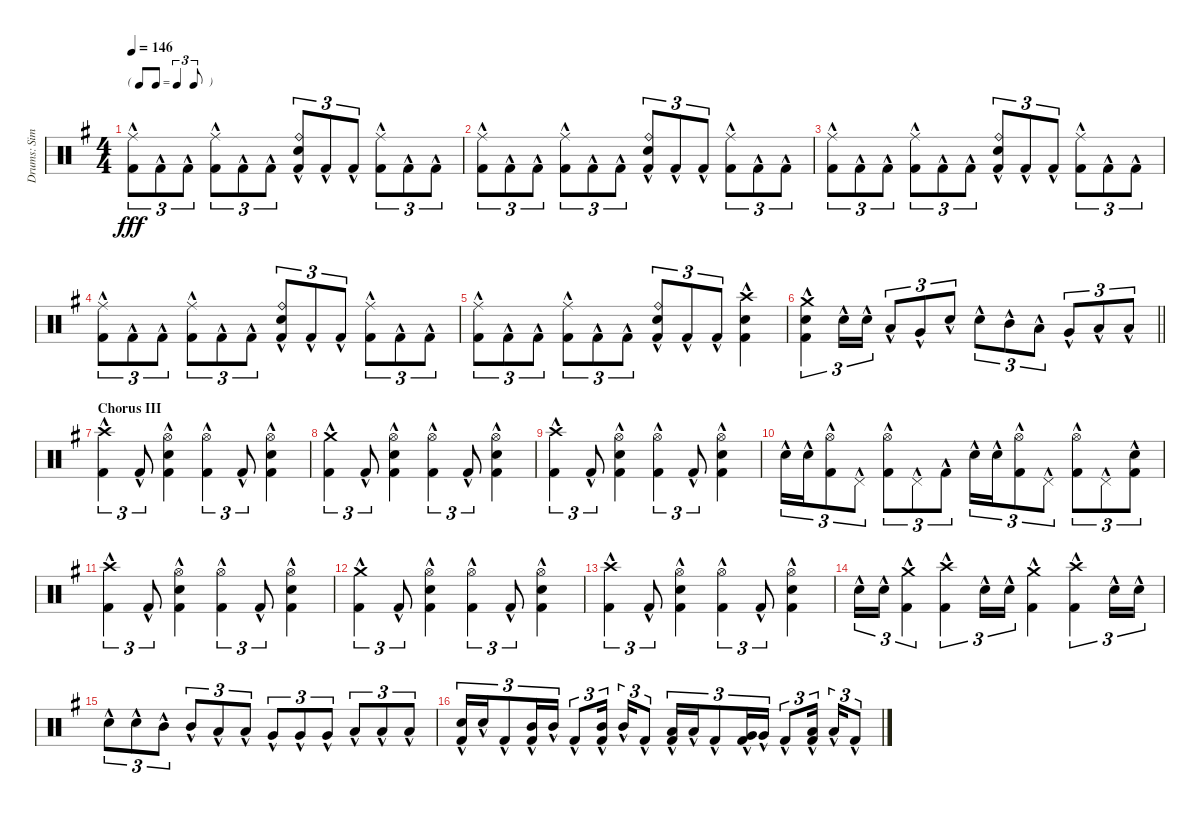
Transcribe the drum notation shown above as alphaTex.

\track ("Drums: Simon" "Drums: Sim") {instrument percussion}
\staff {score}
\articulation defaults
\ts (4 4)
\tf triplet8th
\tempo 146
\clef neutral
\ks g
("Ride (middle)"{hac} "Kick (hit) 2"{hac}).8{tu (3 2) dy fff} "Kick (hit) 2"{hac}.8{tu (3 2)} "Kick (hit) 2"{hac}.8{tu (3 2)} ("Ride (middle)"{hac} "Kick (hit) 2"{hac}).8{tu (3 2)} "Kick (hit) 2"{hac}.8{tu (3 2)} "Kick (hit) 2"{hac}.8{tu (3 2)} ("Ride (bell)"{hac} "Snare (hit) 2"{hac} "Kick (hit) 2"{hac}).8{tu (3 2)} "Kick (hit) 2"{hac}.8{tu (3 2)} "Kick (hit) 2"{hac}.8{tu (3 2)} ("Ride (middle)"{hac} "Kick (hit) 2"{hac}).8{tu (3 2)} "Kick (hit) 2"{hac}.8{tu (3 2)} "Kick (hit) 2"{hac}.8{tu (3 2)} |
("Ride (middle)"{hac} "Kick (hit) 2"{hac}).8{tu (3 2)} "Kick (hit) 2"{hac}.8{tu (3 2)} "Kick (hit) 2"{hac}.8{tu (3 2)} ("Ride (middle)"{hac} "Kick (hit) 2"{hac}).8{tu (3 2)} "Kick (hit) 2"{hac}.8{tu (3 2)} "Kick (hit) 2"{hac}.8{tu (3 2)} ("Ride (bell)"{hac} "Snare (hit) 2"{hac} "Kick (hit) 2"{hac}).8{tu (3 2)} "Kick (hit) 2"{hac}.8{tu (3 2)} "Kick (hit) 2"{hac}.8{tu (3 2)} ("Ride (middle)"{hac} "Kick (hit) 2"{hac}).8{tu (3 2)} "Kick (hit) 2"{hac}.8{tu (3 2)} "Kick (hit) 2"{hac}.8{tu (3 2)} |
("Ride (middle)"{hac} "Kick (hit) 2"{hac}).8{tu (3 2)} "Kick (hit) 2"{hac}.8{tu (3 2)} "Kick (hit) 2"{hac}.8{tu (3 2)} ("Ride (middle)"{hac} "Kick (hit) 2"{hac}).8{tu (3 2)} "Kick (hit) 2"{hac}.8{tu (3 2)} "Kick (hit) 2"{hac}.8{tu (3 2)} ("Ride (bell)"{hac} "Snare (hit) 2"{hac} "Kick (hit) 2"{hac}).8{tu (3 2)} "Kick (hit) 2"{hac}.8{tu (3 2)} "Kick (hit) 2"{hac}.8{tu (3 2)} ("Ride (middle)"{hac} "Kick (hit) 2"{hac}).8{tu (3 2)} "Kick (hit) 2"{hac}.8{tu (3 2)} "Kick (hit) 2"{hac}.8{tu (3 2)} |
("Ride (middle)"{hac} "Kick (hit) 2"{hac}).8{tu (3 2)} "Kick (hit) 2"{hac}.8{tu (3 2)} "Kick (hit) 2"{hac}.8{tu (3 2)} ("Ride (middle)"{hac} "Kick (hit) 2"{hac}).8{tu (3 2)} "Kick (hit) 2"{hac}.8{tu (3 2)} "Kick (hit) 2"{hac}.8{tu (3 2)} ("Ride (bell)"{hac} "Snare (hit) 2"{hac} "Kick (hit) 2"{hac}).8{tu (3 2)} "Kick (hit) 2"{hac}.8{tu (3 2)} "Kick (hit) 2"{hac}.8{tu (3 2)} ("Ride (middle)"{hac} "Kick (hit) 2"{hac}).8{tu (3 2)} "Kick (hit) 2"{hac}.8{tu (3 2)} "Kick (hit) 2"{hac}.8{tu (3 2)} |
("Ride (middle)"{hac} "Kick (hit) 2"{hac}).8{tu (3 2)} "Kick (hit) 2"{hac}.8{tu (3 2)} "Kick (hit) 2"{hac}.8{tu (3 2)} ("Ride (middle)"{hac} "Kick (hit) 2"{hac}).8{tu (3 2)} "Kick (hit) 2"{hac}.8{tu (3 2)} "Kick (hit) 2"{hac}.8{tu (3 2)} ("Ride (bell)"{hac} "Snare (hit) 2"{hac} "Kick (hit) 2"{hac}).8{tu (3 2)} "Kick (hit) 2"{hac}.8{tu (3 2)} "Kick (hit) 2"{hac}.8{tu (3 2)} ("Crash high (hit)"{hac} "Snare (hit) 2"{hac} "Kick (hit) 2"{hac}).4 |
\barLineRight lightlight
("Crash medium (hit)"{hac} "Snare (hit) 2"{hac} "Kick (hit) 2"{hac}).4{tu (3 2)} "Snare (hit) 2"{hac}.16{tu (3 2)} "Snare (hit) 2"{hac}.16{tu (3 2)} "Low Tom (hit)"{hac}.8{tu (3 2)} "Very Low Tom (hit)"{hac}.8{tu (3 2)} "Snare (hit) 2"{hac}.8{tu (3 2)} "Snare (hit) 2"{hac}.8{tu (3 2)} "Mid Tom (hit)"{hac}.8{tu (3 2)} "Low Tom (hit)"{hac}.8{tu (3 2)} "Very Low Tom (hit)"{hac}.8{tu (3 2)} "Low Floor Tom (hit)"{hac}.8{tu (3 2)} "Low Floor Tom (hit)"{hac}.8{tu (3 2)} |
\section ("" "Chorus III")
("Crash high (hit)"{hac} "Kick (hit) 2"{hac}).4{tu (3 2)} "Kick (hit) 2"{hac}.8{tu (3 2)} ("Hi-Hat (open)"{hac} "Snare (hit) 2"{hac} "Kick (hit) 2"{hac}).4 ("Hi-Hat (open)"{hac} "Kick (hit) 2"{hac}).4{tu (3 2)} "Kick (hit) 2"{hac}.8{tu (3 2)} ("Hi-Hat (open)"{hac} "Snare (hit) 2"{hac} "Kick (hit) 2"{hac}).4 |
("Crash medium (hit)"{hac} "Kick (hit) 2"{hac}).4{tu (3 2)} "Kick (hit) 2"{hac}.8{tu (3 2)} ("Hi-Hat (open)"{hac} "Snare (hit) 2"{hac} "Kick (hit) 2"{hac}).4 ("Hi-Hat (open)"{hac} "Kick (hit) 2"{hac}).4{tu (3 2)} "Kick (hit) 2"{hac}.8{tu (3 2)} ("Hi-Hat (open)"{hac} "Snare (hit) 2"{hac} "Kick (hit) 2"{hac}).4 |
("Crash high (hit)"{hac} "Kick (hit) 2"{hac}).4{tu (3 2)} "Kick (hit) 2"{hac}.8{tu (3 2)} ("Hi-Hat (open)"{hac} "Snare (hit) 2"{hac} "Kick (hit) 2"{hac}).4 ("Hi-Hat (open)"{hac} "Kick (hit) 2"{hac}).4{tu (3 2)} "Kick (hit) 2"{hac}.8{tu (3 2)} ("Hi-Hat (open)"{hac} "Snare (hit) 2"{hac} "Kick (hit) 2"{hac}).4 |
"Snare (hit) 2"{hac}.16{tu (3 2)} "Snare (hit) 2"{hac}.16{tu (3 2)} ("Hi-Hat (open)"{hac} "Kick (hit) 2"{hac}).8{tu (3 2)} "Pedal Hi-Hat (hit)"{hac}.8{tu (3 2)} ("Hi-Hat (open)"{hac} "Kick (hit) 2"{hac}).8{tu (3 2)} "Pedal Hi-Hat (hit)"{hac}.8{tu (3 2)} "Kick (hit) 2"{hac}.8{tu (3 2)} "Snare (hit) 2"{hac}.16{tu (3 2)} "Snare (hit) 2"{hac}.16{tu (3 2)} ("Hi-Hat (open)"{hac} "Kick (hit) 2"{hac}).8{tu (3 2)} "Pedal Hi-Hat (hit)"{hac}.8{tu (3 2)} ("Hi-Hat (open)"{hac} "Kick (hit) 2"{hac}).8{tu (3 2)} "Pedal Hi-Hat (hit)"{hac}.8{tu (3 2)} ("Snare (hit) 2"{hac} "Kick (hit) 2"{hac}).8{tu (3 2)} |
("Crash high (hit)"{hac} "Kick (hit) 2"{hac}).4{tu (3 2)} "Kick (hit) 2"{hac}.8{tu (3 2)} ("Hi-Hat (open)"{hac} "Snare (hit) 2"{hac} "Kick (hit) 2"{hac}).4 ("Hi-Hat (open)"{hac} "Kick (hit) 2"{hac}).4{tu (3 2)} "Kick (hit) 2"{hac}.8{tu (3 2)} ("Hi-Hat (open)"{hac} "Snare (hit) 2"{hac} "Kick (hit) 2"{hac}).4 |
("Crash medium (hit)"{hac} "Kick (hit) 2"{hac}).4{tu (3 2)} "Kick (hit) 2"{hac}.8{tu (3 2)} ("Hi-Hat (open)"{hac} "Snare (hit) 2"{hac} "Kick (hit) 2"{hac}).4 ("Hi-Hat (open)"{hac} "Kick (hit) 2"{hac}).4{tu (3 2)} "Kick (hit) 2"{hac}.8{tu (3 2)} ("Hi-Hat (open)"{hac} "Snare (hit) 2"{hac} "Kick (hit) 2"{hac}).4 |
("Crash high (hit)"{hac} "Kick (hit) 2"{hac}).4{tu (3 2)} "Kick (hit) 2"{hac}.8{tu (3 2)} ("Hi-Hat (open)"{hac} "Snare (hit) 2"{hac} "Kick (hit) 2"{hac}).4 ("Hi-Hat (open)"{hac} "Kick (hit) 2"{hac}).4{tu (3 2)} "Kick (hit) 2"{hac}.8{tu (3 2)} ("Hi-Hat (open)"{hac} "Snare (hit) 2"{hac} "Kick (hit) 2"{hac}).4 |
"Snare (hit) 2"{hac}.16{tu (3 2)} "Snare (hit) 2"{hac}.16{tu (3 2)} ("Crash medium (hit)"{hac} "Kick (hit) 2"{hac}).4{tu (3 2)} ("Crash high (hit)"{hac} "Kick (hit) 2"{hac}).4{tu (3 2)} "Snare (hit) 2"{hac}.16{tu (3 2)} "Snare (hit) 2"{hac}.16{tu (3 2)} ("Crash medium (hit)"{hac} "Kick (hit) 2"{hac}).4 ("Crash high (hit)"{hac} "Kick (hit) 2"{hac}).4{tu (3 2)} "Snare (hit) 2"{hac}.16{tu (3 2)} "Snare (hit) 2"{hac}.16{tu (3 2)} |
"Snare (hit) 2"{hac}.8{tu (3 2)} "Snare (hit) 2"{hac}.8{tu (3 2)} "Mid Tom (hit)"{hac}.8{tu (3 2)} "Mid Tom (hit)"{hac}.8{tu (3 2)} "Low Tom (hit)"{hac}.8{tu (3 2)} "Low Tom (hit)"{hac}.8{tu (3 2)} "Very Low Tom (hit)"{hac}.8{tu (3 2)} "Very Low Tom (hit)"{hac}.8{tu (3 2)} "Very Low Tom (hit)"{hac}.8{tu (3 2)} "Low Floor Tom (hit)"{hac}.8{tu (3 2)} "Low Floor Tom (hit)"{hac}.8{tu (3 2)} "Low Floor Tom (hit)"{hac}.8{tu (3 2)} |
("Snare (hit) 2"{hac} "Kick (hit) 2"{hac}).16{tu (3 2)} "Snare (hit) 2"{hac}.16{tu (3 2)} "Kick (hit) 2"{hac}.8{tu (3 2)} ("Mid Tom (hit)"{hac} "Kick (hit) 2"{hac}).16{tu (3 2)} "Mid Tom (hit)"{hac}.16{tu (3 2)} "Kick (hit) 2"{hac}.8{tu (3 2)} ("Mid Tom (hit)"{hac} "Kick (hit) 2"{hac}).16{tu (3 2) beam splitsecondary} "Mid Tom (hit)"{hac}.16{tu (3 2)} "Kick (hit) 2"{hac}.8{tu (3 2)} ("Low Tom (hit)"{hac} "Kick (hit) 2"{hac}).16{tu (3 2)} "Low Tom (hit)"{hac}.16{tu (3 2)} "Kick (hit) 2"{hac}.8{tu (3 2)} ("Very Low Tom (hit)"{hac} "Kick (hit) 2"{hac}).16{tu (3 2)} "Very Low Tom (hit)"{hac}.16{tu (3 2)} "Kick (hit) 2"{hac}.8{tu (3 2)} ("Low Floor Tom (hit)"{hac} "Kick (hit) 2"{hac}).16{tu (3 2) beam splitsecondary} "Low Floor Tom (hit)"{hac}.16{tu (3 2)} "Kick (hit) 2"{hac}.8{tu (3 2)}
